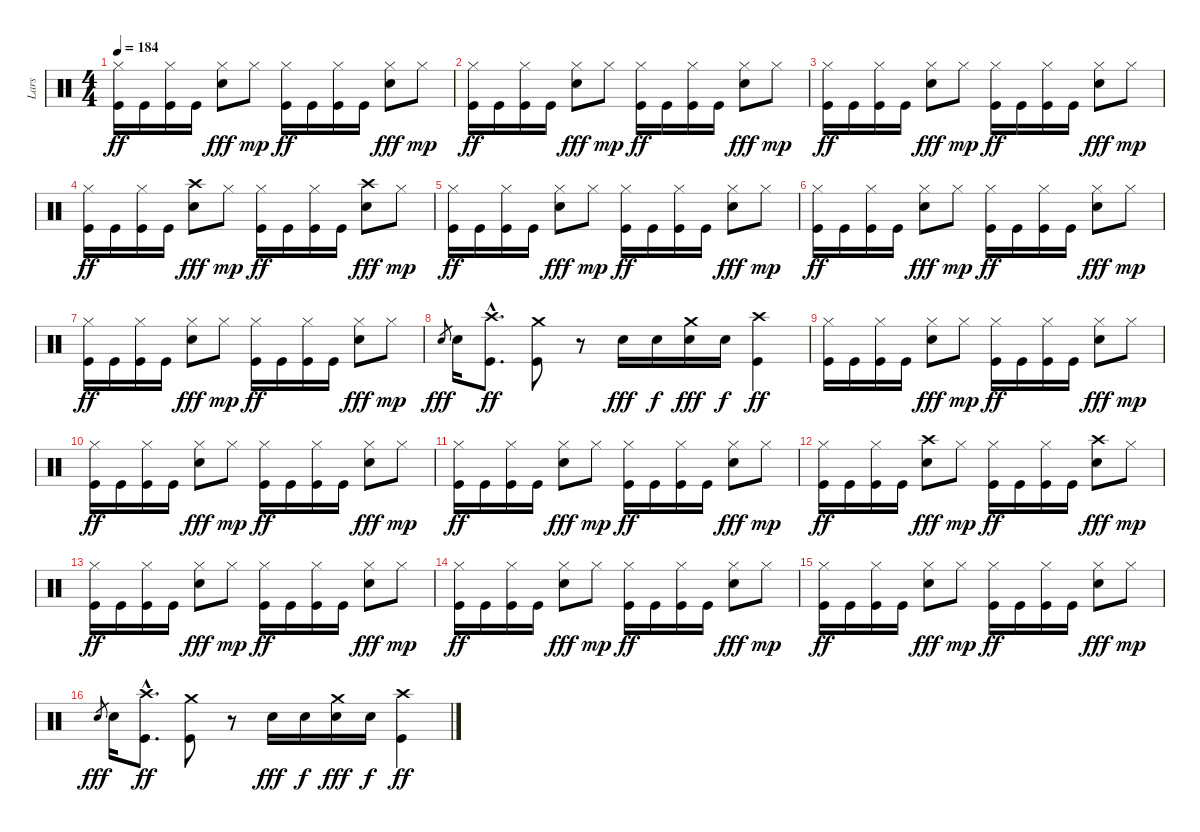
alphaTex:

\track ("Lars" "Lars") {instrument percussion}
\staff {score}
\articulation defaults
\ts (4 4)
\tempo 184
\clef neutral
\ks c
("Hi-Hat (closed)" "Kick (hit)").16{dy ff} "Kick (hit)".16 ("Hi-Hat (closed)" "Kick (hit)").16 "Kick (hit)".16 ("Hi-Hat (closed)" "Electric Snare (hit)").8{dy fff} "Hi-Hat (closed)".8{dy mp} ("Hi-Hat (closed)" "Kick (hit)").16{dy ff} "Kick (hit)".16 ("Hi-Hat (closed)" "Kick (hit)").16 "Kick (hit)".16 ("Hi-Hat (closed)" "Electric Snare (hit)").8{dy fff} "Hi-Hat (closed)".8{dy mp} |
("Hi-Hat (closed)" "Kick (hit)").16{dy ff} "Kick (hit)".16 ("Hi-Hat (closed)" "Kick (hit)").16 "Kick (hit)".16 ("Hi-Hat (closed)" "Electric Snare (hit)").8{dy fff} "Hi-Hat (closed)".8{dy mp} ("Hi-Hat (closed)" "Kick (hit)").16{dy ff} "Kick (hit)".16 ("Hi-Hat (closed)" "Kick (hit)").16 "Kick (hit)".16 ("Hi-Hat (closed)" "Electric Snare (hit)").8{dy fff} "Hi-Hat (closed)".8{dy mp} |
("Hi-Hat (closed)" "Kick (hit)").16{dy ff} "Kick (hit)".16 ("Hi-Hat (closed)" "Kick (hit)").16 "Kick (hit)".16 ("Hi-Hat (closed)" "Electric Snare (hit)").8{dy fff} "Hi-Hat (closed)".8{dy mp} ("Hi-Hat (closed)" "Kick (hit)").16{dy ff} "Kick (hit)".16 ("Hi-Hat (closed)" "Kick (hit)").16 "Kick (hit)".16 ("Hi-Hat (closed)" "Electric Snare (hit)").8{dy fff} "Hi-Hat (closed)".8{dy mp} |
("Hi-Hat (closed)" "Kick (hit)").16{dy ff} "Kick (hit)".16 ("Hi-Hat (closed)" "Kick (hit)").16 "Kick (hit)".16 ("Crash high (hit)" "Electric Snare (hit)").8{dy fff} "Hi-Hat (closed)".8{dy mp} ("Hi-Hat (closed)" "Kick (hit)").16{dy ff} "Kick (hit)".16 ("Hi-Hat (closed)" "Kick (hit)").16 "Kick (hit)".16 ("Crash high (hit)" "Electric Snare (hit)").8{dy fff} "Hi-Hat (closed)".8{dy mp} |
("Hi-Hat (closed)" "Kick (hit)").16{dy ff} "Kick (hit)".16 ("Hi-Hat (closed)" "Kick (hit)").16 "Kick (hit)".16 ("Hi-Hat (closed)" "Electric Snare (hit)").8{dy fff} "Hi-Hat (closed)".8{dy mp} ("Hi-Hat (closed)" "Kick (hit)").16{dy ff} "Kick (hit)".16 ("Hi-Hat (closed)" "Kick (hit)").16 "Kick (hit)".16 ("Hi-Hat (closed)" "Electric Snare (hit)").8{dy fff} "Hi-Hat (closed)".8{dy mp} |
("Hi-Hat (closed)" "Kick (hit)").16{dy ff} "Kick (hit)".16 ("Hi-Hat (closed)" "Kick (hit)").16 "Kick (hit)".16 ("Hi-Hat (closed)" "Electric Snare (hit)").8{dy fff} "Hi-Hat (closed)".8{dy mp} ("Hi-Hat (closed)" "Kick (hit)").16{dy ff} "Kick (hit)".16 ("Hi-Hat (closed)" "Kick (hit)").16 "Kick (hit)".16 ("Hi-Hat (closed)" "Electric Snare (hit)").8{dy fff} "Hi-Hat (closed)".8{dy mp} |
("Hi-Hat (closed)" "Kick (hit)").16{dy ff} "Kick (hit)".16 ("Hi-Hat (closed)" "Kick (hit)").16 "Kick (hit)".16 ("Hi-Hat (closed)" "Electric Snare (hit)").8{dy fff} "Hi-Hat (closed)".8{dy mp} ("Hi-Hat (closed)" "Kick (hit)").16{dy ff} "Kick (hit)".16 ("Hi-Hat (closed)" "Kick (hit)").16 "Kick (hit)".16 ("Hi-Hat (closed)" "Electric Snare (hit)").8{dy fff} "Hi-Hat (closed)".8{dy mp} |
"Electric Snare (hit)".8{gr dy fff} "Electric Snare (hit)".16 ("Crash high (hit)"{hac} "Kick (hit)"{hac}).8{d dy ff} ("Crash medium (hit)" "Kick (hit)").8 r.8 "Electric Snare (hit)".16{dy fff} "Electric Snare (hit)".16{dy f} ("Crash medium (hit)" "Electric Snare (hit)").16{dy fff} "Electric Snare (hit)".16{dy f} ("Crash high (hit)" "Kick (hit)").4{dy ff} |
("Hi-Hat (closed)" "Kick (hit)").16 "Kick (hit)".16 ("Hi-Hat (closed)" "Kick (hit)").16 "Kick (hit)".16 ("Hi-Hat (closed)" "Electric Snare (hit)").8{dy fff} "Hi-Hat (closed)".8{dy mp} ("Hi-Hat (closed)" "Kick (hit)").16{dy ff} "Kick (hit)".16 ("Hi-Hat (closed)" "Kick (hit)").16 "Kick (hit)".16 ("Hi-Hat (closed)" "Electric Snare (hit)").8{dy fff} "Hi-Hat (closed)".8{dy mp} |
("Hi-Hat (closed)" "Kick (hit)").16{dy ff} "Kick (hit)".16 ("Hi-Hat (closed)" "Kick (hit)").16 "Kick (hit)".16 ("Hi-Hat (closed)" "Electric Snare (hit)").8{dy fff} "Hi-Hat (closed)".8{dy mp} ("Hi-Hat (closed)" "Kick (hit)").16{dy ff} "Kick (hit)".16 ("Hi-Hat (closed)" "Kick (hit)").16 "Kick (hit)".16 ("Hi-Hat (closed)" "Electric Snare (hit)").8{dy fff} "Hi-Hat (closed)".8{dy mp} |
("Hi-Hat (closed)" "Kick (hit)").16{dy ff} "Kick (hit)".16 ("Hi-Hat (closed)" "Kick (hit)").16 "Kick (hit)".16 ("Hi-Hat (closed)" "Electric Snare (hit)").8{dy fff} "Hi-Hat (closed)".8{dy mp} ("Hi-Hat (closed)" "Kick (hit)").16{dy ff} "Kick (hit)".16 ("Hi-Hat (closed)" "Kick (hit)").16 "Kick (hit)".16 ("Hi-Hat (closed)" "Electric Snare (hit)").8{dy fff} "Hi-Hat (closed)".8{dy mp} |
("Hi-Hat (closed)" "Kick (hit)").16{dy ff} "Kick (hit)".16 ("Hi-Hat (closed)" "Kick (hit)").16 "Kick (hit)".16 ("Crash high (hit)" "Electric Snare (hit)").8{dy fff} "Hi-Hat (closed)".8{dy mp} ("Hi-Hat (closed)" "Kick (hit)").16{dy ff} "Kick (hit)".16 ("Hi-Hat (closed)" "Kick (hit)").16 "Kick (hit)".16 ("Crash high (hit)" "Electric Snare (hit)").8{dy fff} "Hi-Hat (closed)".8{dy mp} |
("Hi-Hat (closed)" "Kick (hit)").16{dy ff} "Kick (hit)".16 ("Hi-Hat (closed)" "Kick (hit)").16 "Kick (hit)".16 ("Hi-Hat (closed)" "Electric Snare (hit)").8{dy fff} "Hi-Hat (closed)".8{dy mp} ("Hi-Hat (closed)" "Kick (hit)").16{dy ff} "Kick (hit)".16 ("Hi-Hat (closed)" "Kick (hit)").16 "Kick (hit)".16 ("Hi-Hat (closed)" "Electric Snare (hit)").8{dy fff} "Hi-Hat (closed)".8{dy mp} |
("Hi-Hat (closed)" "Kick (hit)").16{dy ff} "Kick (hit)".16 ("Hi-Hat (closed)" "Kick (hit)").16 "Kick (hit)".16 ("Hi-Hat (closed)" "Electric Snare (hit)").8{dy fff} "Hi-Hat (closed)".8{dy mp} ("Hi-Hat (closed)" "Kick (hit)").16{dy ff} "Kick (hit)".16 ("Hi-Hat (closed)" "Kick (hit)").16 "Kick (hit)".16 ("Hi-Hat (closed)" "Electric Snare (hit)").8{dy fff} "Hi-Hat (closed)".8{dy mp} |
("Hi-Hat (closed)" "Kick (hit)").16{dy ff} "Kick (hit)".16 ("Hi-Hat (closed)" "Kick (hit)").16 "Kick (hit)".16 ("Hi-Hat (closed)" "Electric Snare (hit)").8{dy fff} "Hi-Hat (closed)".8{dy mp} ("Hi-Hat (closed)" "Kick (hit)").16{dy ff} "Kick (hit)".16 ("Hi-Hat (closed)" "Kick (hit)").16 "Kick (hit)".16 ("Hi-Hat (closed)" "Electric Snare (hit)").8{dy fff} "Hi-Hat (closed)".8{dy mp} |
"Electric Snare (hit)".8{gr dy fff} "Electric Snare (hit)".16 ("Crash high (hit)"{hac} "Kick (hit)"{hac}).8{d dy ff} ("Crash medium (hit)" "Kick (hit)").8 r.8 "Electric Snare (hit)".16{dy fff} "Electric Snare (hit)".16{dy f} ("Crash medium (hit)" "Electric Snare (hit)").16{dy fff} "Electric Snare (hit)".16{dy f} ("Crash high (hit)" "Kick (hit)").4{dy ff}
